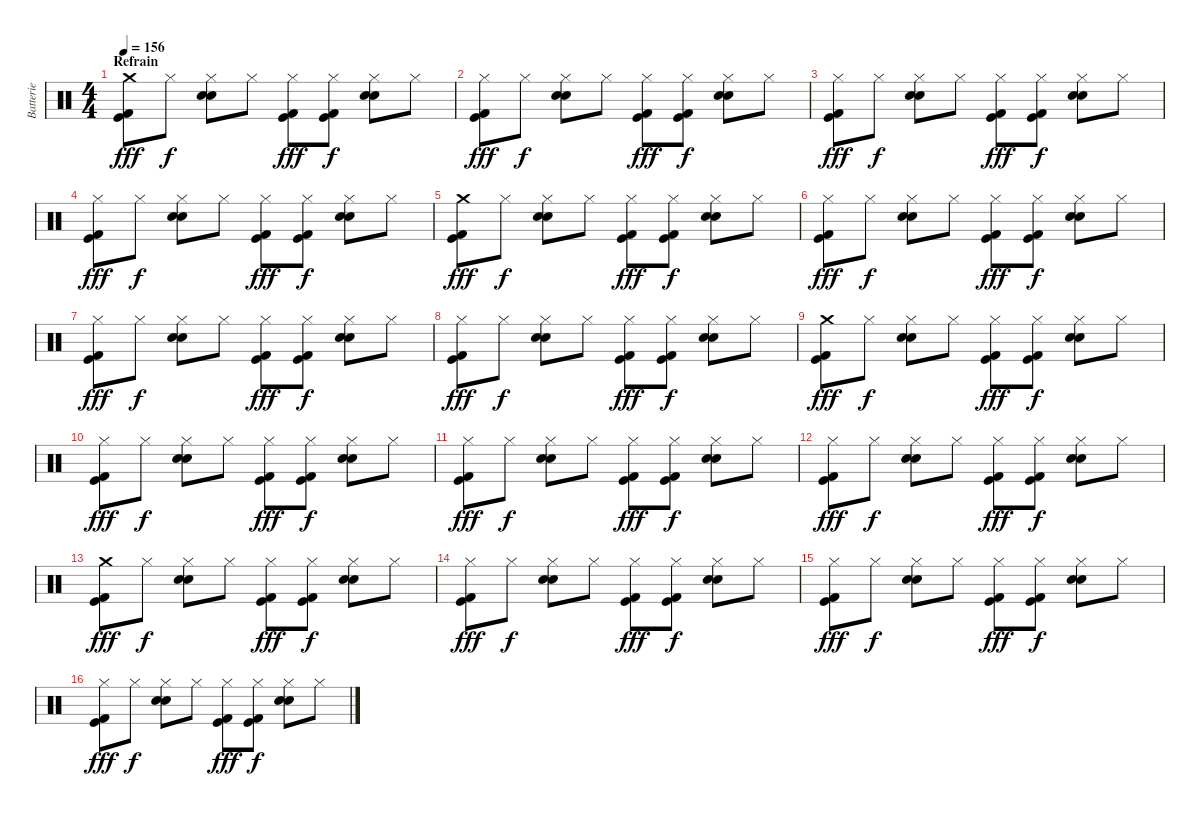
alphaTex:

\track ("Batterie" "Batterie") {instrument percussion}
\staff {score}
\articulation defaults
\ts (4 4)
\section ("" "Refrain")
\tempo 156
\clef neutral
\ks c
("Crash medium (hit)" "Kick (hit)" "Kick (hit) 2").8{dy fff} "Hi-Hat (closed)".8{dy f} ("Hi-Hat (closed)" "Snare (hit) 2" "Electric Snare (hit)").8 "Hi-Hat (closed)".8 ("Hi-Hat (closed)" "Kick (hit)" "Kick (hit) 2").8{dy fff} ("Hi-Hat (closed)" "Kick (hit)" "Kick (hit) 2").8{dy f} ("Hi-Hat (closed)" "Snare (hit) 2" "Electric Snare (hit)").8 "Hi-Hat (closed)".8 |
("Hi-Hat (closed)" "Kick (hit)" "Kick (hit) 2").8{dy fff} "Hi-Hat (closed)".8{dy f} ("Hi-Hat (closed)" "Snare (hit) 2" "Electric Snare (hit)").8 "Hi-Hat (closed)".8 ("Hi-Hat (closed)" "Kick (hit)" "Kick (hit) 2").8{dy fff} ("Hi-Hat (closed)" "Kick (hit)" "Kick (hit) 2").8{dy f} ("Hi-Hat (closed)" "Snare (hit) 2" "Electric Snare (hit)").8 "Hi-Hat (closed)".8 |
("Hi-Hat (closed)" "Kick (hit)" "Kick (hit) 2").8{dy fff} "Hi-Hat (closed)".8{dy f} ("Hi-Hat (closed)" "Snare (hit) 2" "Electric Snare (hit)").8 "Hi-Hat (closed)".8 ("Hi-Hat (closed)" "Kick (hit)" "Kick (hit) 2").8{dy fff} ("Hi-Hat (closed)" "Kick (hit)" "Kick (hit) 2").8{dy f} ("Hi-Hat (closed)" "Snare (hit) 2" "Electric Snare (hit)").8 "Hi-Hat (closed)".8 |
("Hi-Hat (closed)" "Kick (hit)" "Kick (hit) 2").8{dy fff} "Hi-Hat (closed)".8{dy f} ("Hi-Hat (closed)" "Snare (hit) 2" "Electric Snare (hit)").8 "Hi-Hat (closed)".8 ("Hi-Hat (closed)" "Kick (hit)" "Kick (hit) 2").8{dy fff} ("Hi-Hat (closed)" "Kick (hit)" "Kick (hit) 2").8{dy f} ("Hi-Hat (closed)" "Snare (hit) 2" "Electric Snare (hit)").8 "Hi-Hat (closed)".8 |
("Crash medium (hit)" "Kick (hit)" "Kick (hit) 2").8{dy fff} "Hi-Hat (closed)".8{dy f} ("Hi-Hat (closed)" "Snare (hit) 2" "Electric Snare (hit)").8 "Hi-Hat (closed)".8 ("Hi-Hat (closed)" "Kick (hit)" "Kick (hit) 2").8{dy fff} ("Hi-Hat (closed)" "Kick (hit)" "Kick (hit) 2").8{dy f} ("Hi-Hat (closed)" "Snare (hit) 2" "Electric Snare (hit)").8 "Hi-Hat (closed)".8 |
("Hi-Hat (closed)" "Kick (hit)" "Kick (hit) 2").8{dy fff} "Hi-Hat (closed)".8{dy f} ("Hi-Hat (closed)" "Snare (hit) 2" "Electric Snare (hit)").8 "Hi-Hat (closed)".8 ("Hi-Hat (closed)" "Kick (hit)" "Kick (hit) 2").8{dy fff} ("Hi-Hat (closed)" "Kick (hit)" "Kick (hit) 2").8{dy f} ("Hi-Hat (closed)" "Snare (hit) 2" "Electric Snare (hit)").8 "Hi-Hat (closed)".8 |
("Hi-Hat (closed)" "Kick (hit)" "Kick (hit) 2").8{dy fff} "Hi-Hat (closed)".8{dy f} ("Hi-Hat (closed)" "Snare (hit) 2" "Electric Snare (hit)").8 "Hi-Hat (closed)".8 ("Hi-Hat (closed)" "Kick (hit)" "Kick (hit) 2").8{dy fff} ("Hi-Hat (closed)" "Kick (hit)" "Kick (hit) 2").8{dy f} ("Hi-Hat (closed)" "Snare (hit) 2" "Electric Snare (hit)").8 "Hi-Hat (closed)".8 |
("Hi-Hat (closed)" "Kick (hit)" "Kick (hit) 2").8{dy fff} "Hi-Hat (closed)".8{dy f} ("Hi-Hat (closed)" "Snare (hit) 2" "Electric Snare (hit)").8 "Hi-Hat (closed)".8 ("Hi-Hat (closed)" "Kick (hit)" "Kick (hit) 2").8{dy fff} ("Hi-Hat (closed)" "Kick (hit)" "Kick (hit) 2").8{dy f} ("Hi-Hat (closed)" "Snare (hit) 2" "Electric Snare (hit)").8 "Hi-Hat (closed)".8 |
("Crash medium (hit)" "Kick (hit)" "Kick (hit) 2").8{dy fff} "Hi-Hat (closed)".8{dy f} ("Hi-Hat (closed)" "Snare (hit) 2" "Electric Snare (hit)").8 "Hi-Hat (closed)".8 ("Hi-Hat (closed)" "Kick (hit)" "Kick (hit) 2").8{dy fff} ("Hi-Hat (closed)" "Kick (hit)" "Kick (hit) 2").8{dy f} ("Hi-Hat (closed)" "Snare (hit) 2" "Electric Snare (hit)").8 "Hi-Hat (closed)".8 |
("Hi-Hat (closed)" "Kick (hit)" "Kick (hit) 2").8{dy fff} "Hi-Hat (closed)".8{dy f} ("Hi-Hat (closed)" "Snare (hit) 2" "Electric Snare (hit)").8 "Hi-Hat (closed)".8 ("Hi-Hat (closed)" "Kick (hit)" "Kick (hit) 2").8{dy fff} ("Hi-Hat (closed)" "Kick (hit)" "Kick (hit) 2").8{dy f} ("Hi-Hat (closed)" "Snare (hit) 2" "Electric Snare (hit)").8 "Hi-Hat (closed)".8 |
("Hi-Hat (closed)" "Kick (hit)" "Kick (hit) 2").8{dy fff} "Hi-Hat (closed)".8{dy f} ("Hi-Hat (closed)" "Snare (hit) 2" "Electric Snare (hit)").8 "Hi-Hat (closed)".8 ("Hi-Hat (closed)" "Kick (hit)" "Kick (hit) 2").8{dy fff} ("Hi-Hat (closed)" "Kick (hit)" "Kick (hit) 2").8{dy f} ("Hi-Hat (closed)" "Snare (hit) 2" "Electric Snare (hit)").8 "Hi-Hat (closed)".8 |
("Hi-Hat (closed)" "Kick (hit)" "Kick (hit) 2").8{dy fff} "Hi-Hat (closed)".8{dy f} ("Hi-Hat (closed)" "Snare (hit) 2" "Electric Snare (hit)").8 "Hi-Hat (closed)".8 ("Hi-Hat (closed)" "Kick (hit)" "Kick (hit) 2").8{dy fff} ("Hi-Hat (closed)" "Kick (hit)" "Kick (hit) 2").8{dy f} ("Hi-Hat (closed)" "Snare (hit) 2" "Electric Snare (hit)").8 "Hi-Hat (closed)".8 |
("Crash medium (hit)" "Kick (hit)" "Kick (hit) 2").8{dy fff} "Hi-Hat (closed)".8{dy f} ("Hi-Hat (closed)" "Snare (hit) 2" "Electric Snare (hit)").8 "Hi-Hat (closed)".8 ("Hi-Hat (closed)" "Kick (hit)" "Kick (hit) 2").8{dy fff} ("Hi-Hat (closed)" "Kick (hit)" "Kick (hit) 2").8{dy f} ("Hi-Hat (closed)" "Snare (hit) 2" "Electric Snare (hit)").8 "Hi-Hat (closed)".8 |
("Hi-Hat (closed)" "Kick (hit)" "Kick (hit) 2").8{dy fff} "Hi-Hat (closed)".8{dy f} ("Hi-Hat (closed)" "Snare (hit) 2" "Electric Snare (hit)").8 "Hi-Hat (closed)".8 ("Hi-Hat (closed)" "Kick (hit)" "Kick (hit) 2").8{dy fff} ("Hi-Hat (closed)" "Kick (hit)" "Kick (hit) 2").8{dy f} ("Hi-Hat (closed)" "Snare (hit) 2" "Electric Snare (hit)").8 "Hi-Hat (closed)".8 |
("Hi-Hat (closed)" "Kick (hit)" "Kick (hit) 2").8{dy fff} "Hi-Hat (closed)".8{dy f} ("Hi-Hat (closed)" "Snare (hit) 2" "Electric Snare (hit)").8 "Hi-Hat (closed)".8 ("Hi-Hat (closed)" "Kick (hit)" "Kick (hit) 2").8{dy fff} ("Hi-Hat (closed)" "Kick (hit)" "Kick (hit) 2").8{dy f} ("Hi-Hat (closed)" "Snare (hit) 2" "Electric Snare (hit)").8 "Hi-Hat (closed)".8 |
("Hi-Hat (closed)" "Kick (hit)" "Kick (hit) 2").8{dy fff} "Hi-Hat (closed)".8{dy f} ("Hi-Hat (closed)" "Snare (hit) 2" "Electric Snare (hit)").8 "Hi-Hat (closed)".8 ("Hi-Hat (closed)" "Kick (hit)" "Kick (hit) 2").8{dy fff} ("Hi-Hat (closed)" "Kick (hit)" "Kick (hit) 2").8{dy f} ("Hi-Hat (closed)" "Snare (hit) 2" "Electric Snare (hit)").8 "Hi-Hat (closed)".8
